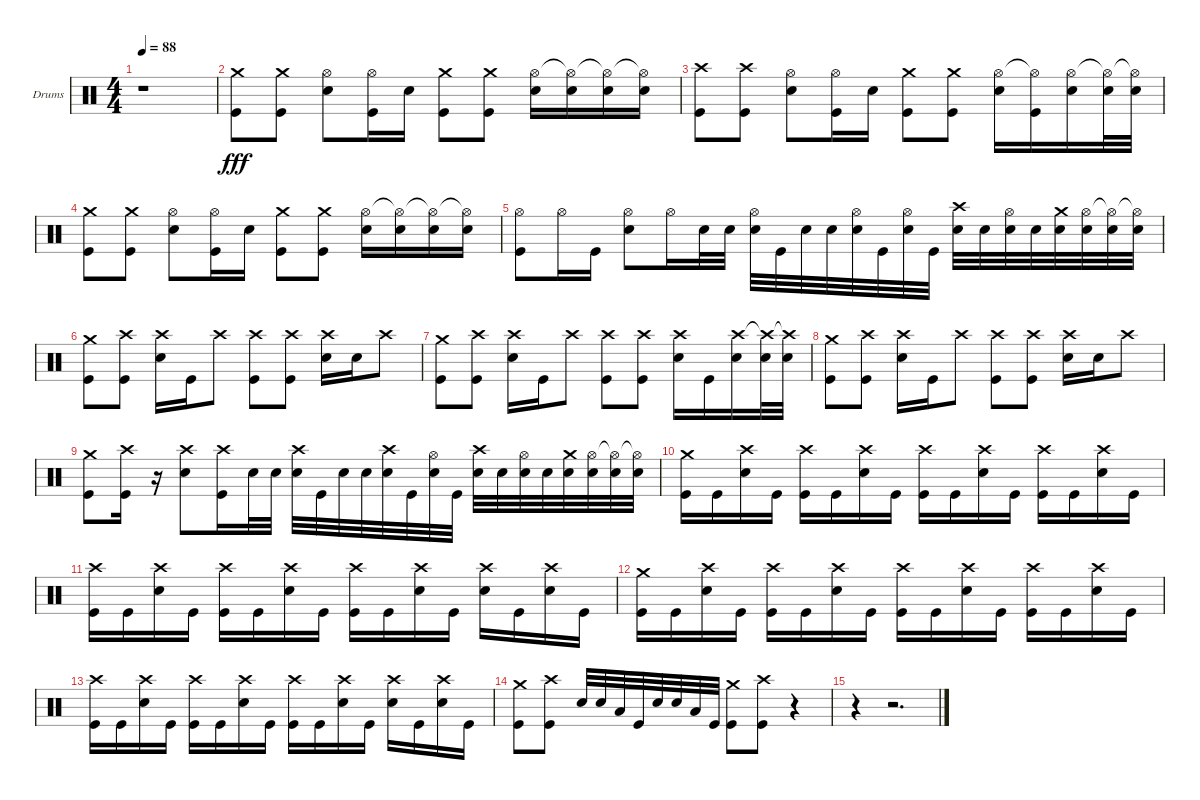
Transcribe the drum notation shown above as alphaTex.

\bracketExtendMode groupsimilarinstruments
\firstSystemTrackNameOrientation horizontal
\otherSystemsTrackNameOrientation horizontal
\track ("Drumkit" "Drums") {instrument percussion}
\staff {score}
\articulation defaults
\ts (4 4)
\tempo 88
\clef neutral
\scale
0.333333
\ks c
r.1{dy fff} |
\scale
0.333333 ("Crash medium (hit)" "Kick (hit)").8 ("Crash medium (hit)" "Kick (hit)").8 ("Hi-Hat (open)" "Snare (hit) 2").8 ("Hi-Hat (open)" "Kick (hit)").16 "Snare (hit) 2".16 ("Crash medium (hit)" "Kick (hit)").8 ("Crash medium (hit)" "Kick (hit)").8 ("Hi-Hat (open)" "Snare (hit) 2").16 ("Hi-Hat (open)"{t} "Snare (hit) 2").16 ("Hi-Hat (open)"{t} "Snare (hit) 2").16 ("Hi-Hat (open)"{t} "Snare (hit) 2").16 |
\scale
0.333333 ("Crash high (hit)" "Kick (hit)").8 ("Crash high (hit)" "Kick (hit)").8 ("Hi-Hat (open)" "Snare (hit) 2").8 ("Hi-Hat (open)" "Kick (hit)").16 "Snare (hit) 2".16 ("Crash medium (hit)" "Kick (hit)").8 ("Crash medium (hit)" "Kick (hit)").8 ("Hi-Hat (open)" "Snare (hit) 2").16 ("Hi-Hat (open)"{t} "Kick (hit)").16 ("Hi-Hat (open)" "Snare (hit) 2").16 ("Hi-Hat (open)"{t} "Snare (hit) 2").32 ("Hi-Hat (open)"{t} "Snare (hit) 2").32 |
\scale
0.333333 ("Crash medium (hit)" "Kick (hit)").8 ("Crash medium (hit)" "Kick (hit)").8 ("Hi-Hat (open)" "Snare (hit) 2").8 ("Hi-Hat (open)" "Kick (hit)").16 "Snare (hit) 2".16 ("Crash medium (hit)" "Kick (hit)").8 ("Crash medium (hit)" "Kick (hit)").8 ("Hi-Hat (open)" "Snare (hit) 2").16 ("Hi-Hat (open)"{t} "Snare (hit) 2").16 ("Hi-Hat (open)"{t} "Snare (hit) 2").16 ("Hi-Hat (open)"{t} "Snare (hit) 2").16 |
\scale
0.333333 ("Hi-Hat (open)" "Kick (hit)").8 "Hi-Hat (open)".16 "Kick (hit)".16 ("Hi-Hat (open)" "Snare (hit) 2").8 "Hi-Hat (open)".16 "Snare (hit) 2".32 "Snare (hit) 2".32 ("Hi-Hat (open)" "Snare (hit) 2").32 "Kick (hit)".32 "Snare (hit) 2".32 "Snare (hit) 2".32 ("Hi-Hat (open)" "Snare (hit) 2").32 "Kick (hit)".32 ("Hi-Hat (open)" "Snare (hit) 2").32 "Kick (hit)".32 ("Crash high (hit)" "Snare (hit) 2").32 "Snare (hit) 2".32 ("Hi-Hat (open)" "Snare (hit) 2").32 "Snare (hit) 2".32 ("Crash medium (hit)" "Snare (hit) 2").32 ("Hi-Hat (open)" "Snare (hit) 2").32 ("Hi-Hat (open)"{t} "Snare (hit) 2").32 ("Hi-Hat (open)"{t} "Snare (hit) 2").32 |
\scale
0.333333 ("Crash medium (hit)" "Kick (hit)").8 ("Crash high (hit)" "Kick (hit)").8 ("Crash high (hit)" "Snare (hit) 2").16 "Kick (hit)".16 "Crash high (hit)".8 ("Crash high (hit)" "Kick (hit)").8 ("Crash high (hit)" "Kick (hit)").8 ("Crash high (hit)" "Snare (hit) 2").16 "Snare (hit) 2".16 "Crash high (hit)".8 |
\scale
0.333333 ("Crash medium (hit)" "Kick (hit)").8 ("Crash high (hit)" "Kick (hit)").8 ("Crash high (hit)" "Snare (hit) 2").16 "Kick (hit)".16 "Crash high (hit)".8 ("Crash high (hit)" "Kick (hit)").8 ("Crash high (hit)" "Kick (hit)").8 ("Crash high (hit)" "Snare (hit) 2").16 "Kick (hit)".16 ("Crash high (hit)" "Snare (hit) 2").16 ("Crash high (hit)"{t} "Snare (hit) 2").32 ("Crash high (hit)"{t} "Snare (hit) 2").32 |
\scale
0.333333 ("Crash medium (hit)" "Kick (hit)").8 ("Crash high (hit)" "Kick (hit)").8 ("Crash high (hit)" "Snare (hit) 2").16 "Kick (hit)".16 "Crash high (hit)".8 ("Crash high (hit)" "Kick (hit)").8 ("Crash high (hit)" "Kick (hit)").8 ("Crash high (hit)" "Snare (hit) 2").16 "Snare (hit) 2".16 "Crash high (hit)".8 |
\scale
0.333333 ("Crash medium (hit)" "Kick (hit)").8 ("Crash high (hit)" "Kick (hit)").16 r.16 ("Crash high (hit)" "Snare (hit) 2").8 ("Crash high (hit)" "Kick (hit)").16 "Snare (hit) 2".32 "Snare (hit) 2".32 ("Crash high (hit)" "Snare (hit) 2").32 "Kick (hit)".32 "Snare (hit) 2".32 "Snare (hit) 2".32 ("Crash high (hit)" "Snare (hit) 2").32 "Kick (hit)".32 ("Hi-Hat (open)" "Snare (hit) 2").32 "Kick (hit)".32 ("Crash high (hit)" "Snare (hit) 2").32 "Snare (hit) 2".32 ("Hi-Hat (open)" "Snare (hit) 2").32 "Snare (hit) 2".32 ("Crash medium (hit)" "Snare (hit) 2").32 ("Hi-Hat (open)" "Snare (hit) 2").32 ("Hi-Hat (open)"{t} "Snare (hit) 2").32 ("Hi-Hat (open)"{t} "Snare (hit) 2").32 |
\scale
0.333333 ("Crash medium (hit)" "Kick (hit)").16 "Kick (hit)".16 ("Crash high (hit)" "Snare (hit) 2").16 "Kick (hit)".16 ("Crash high (hit)" "Kick (hit)").16 "Kick (hit)".16 ("Crash high (hit)" "Snare (hit) 2").16 "Kick (hit)".16 ("Crash high (hit)" "Kick (hit)").16 "Kick (hit)".16 ("Crash high (hit)" "Snare (hit) 2").16 "Kick (hit)".16 ("Crash high (hit)" "Kick (hit)").16 "Kick (hit)".16 ("Crash high (hit)" "Snare (hit) 2").16 "Kick (hit)".16 |
\scale
0.333333 ("Crash high (hit)" "Kick (hit)").16 "Kick (hit)".16 ("Crash high (hit)" "Snare (hit) 2").16 "Kick (hit)".16 ("Crash high (hit)" "Kick (hit)").16 "Kick (hit)".16 ("Crash high (hit)" "Snare (hit) 2").16 "Kick (hit)".16 ("Crash high (hit)" "Kick (hit)").16 "Kick (hit)".16 ("Crash high (hit)" "Snare (hit) 2").16 "Kick (hit)".16 ("Crash high (hit)" "Snare (hit) 2").16 "Kick (hit)".16 ("Crash high (hit)" "Snare (hit) 2").16 "Kick (hit)".16 |
\scale
0.333333 ("Crash medium (hit)" "Kick (hit)").16 "Kick (hit)".16 ("Crash high (hit)" "Snare (hit) 2").16 "Kick (hit)".16 ("Crash high (hit)" "Kick (hit)").16 "Kick (hit)".16 ("Crash high (hit)" "Snare (hit) 2").16 "Kick (hit)".16 ("Crash high (hit)" "Kick (hit)").16 "Kick (hit)".16 ("Crash high (hit)" "Snare (hit) 2").16 "Kick (hit)".16 ("Crash high (hit)" "Kick (hit)").16 "Kick (hit)".16 ("Crash high (hit)" "Snare (hit) 2").16 "Kick (hit)".16 |
\scale
0.333333 ("Crash high (hit)" "Kick (hit)").16 "Kick (hit)".16 ("Crash high (hit)" "Snare (hit) 2").16 "Kick (hit)".16 ("Crash high (hit)" "Kick (hit)").16 "Kick (hit)".16 ("Crash high (hit)" "Snare (hit) 2").16 "Kick (hit)".16 ("Crash high (hit)" "Kick (hit)").16 "Kick (hit)".16 ("Crash high (hit)" "Snare (hit) 2").16 "Kick (hit)".16 ("Crash high (hit)" "Snare (hit) 2").16 "Kick (hit)".16 ("Crash high (hit)" "Snare (hit) 2").16 "Kick (hit)".16 |
\scale
0.333333 ("Crash medium (hit)" "Kick (hit)").8 ("Crash high (hit)" "Kick (hit)").8 "Snare (hit) 2".32 "Snare (hit) 2".32 "Low Tom (hit)".32 "Kick (hit)".32 "Snare (hit) 2".32 "Snare (hit) 2".32 "Low Tom (hit)".32 "Kick (hit)".32 ("Crash medium (hit)" "Kick (hit)").8 ("Crash high (hit)" "Kick (hit)").8 r.4 |
r.4 r.2{d}
